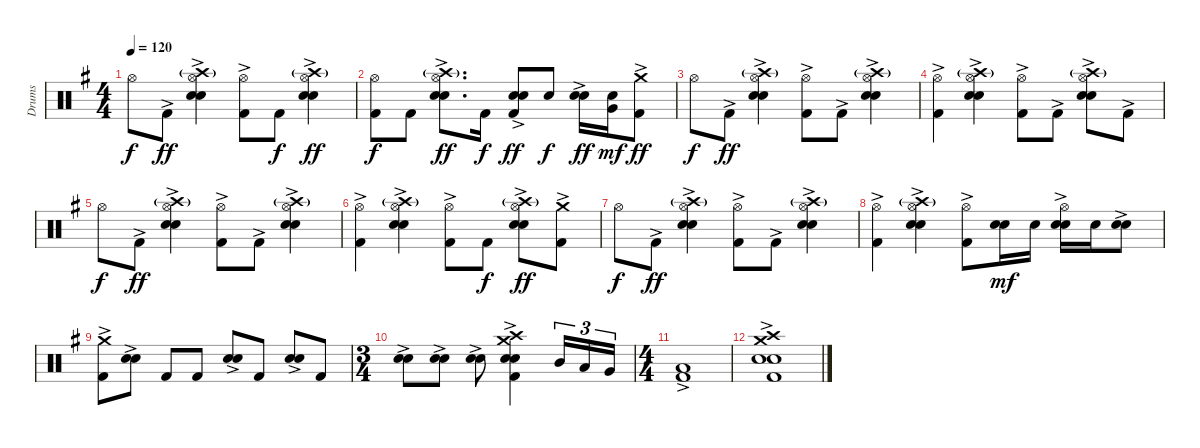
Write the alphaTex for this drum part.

\track ("Drums" "Drums") {instrument percussion}
\staff {score}
\articulation defaults
\ts (4 4)
\tempo 120
\clef neutral
\ks g "Hi-Hat (open)".8{dy f} "Kick (hit) 2"{ac}.8{dy ff}
("Hi-Hat (open)" "Crash high (hit)"{g} "Electric Snare (hit)"{ac} "Snare (hit) 2").4 ("Hi-Hat (open)" "Kick (hit) 2"{ac}).8 "Kick (hit) 2".8{dy f} ("Hi-Hat (open)" "Crash high (hit)"{g} "Electric Snare (hit)"{ac} "Snare (hit) 2").4{dy ff} |
("Hi-Hat (open)" "Kick (hit) 2").8{dy f} "Kick (hit) 2".8 ("Hi-Hat (open)" "Crash high (hit)"{g} "Electric Snare (hit)"{ac} "Snare (hit) 2").8{d dy ff} "Kick (hit) 2".16{dy f} ("Electric Snare (hit)"{ac} "Snare (hit) 2" "Kick (hit) 2").8{dy ff} "Snare (hit) 2".8{dy f} ("Electric Snare (hit)"{ac} "Snare (hit) 2").16{dy ff} ("Very Low Tom (hit)" "Snare (hit) 2").16{dy mf} ("Crash medium (hit)" "Kick (hit) 2"{ac}).8{dy ff} |
"Hi-Hat (open)".8{dy f} "Kick (hit) 2"{ac}.8{dy ff} ("Hi-Hat (open)" "Crash high (hit)"{g} "Electric Snare (hit)"{ac} "Snare (hit) 2").4 ("Hi-Hat (open)" "Kick (hit) 2"{ac}).8 "Kick (hit) 2"{ac}.8 ("Hi-Hat (open)" "Crash high (hit)"{g} "Electric Snare (hit)"{ac} "Snare (hit) 2").4 |
("Hi-Hat (open)" "Kick (hit) 2"{ac}).4 ("Hi-Hat (open)" "Crash high (hit)"{g} "Electric Snare (hit)"{ac} "Snare (hit) 2").4 ("Hi-Hat (open)" "Kick (hit) 2"{ac}).8 "Kick (hit) 2"{ac}.8 ("Hi-Hat (open)" "Crash high (hit)"{g} "Electric Snare (hit)"{ac} "Snare (hit) 2").8 "Kick (hit) 2"{ac}.8 |
"Hi-Hat (open)".8{dy f} "Kick (hit) 2"{ac}.8{dy ff} ("Hi-Hat (open)" "Crash high (hit)"{g} "Electric Snare (hit)"{ac} "Snare (hit) 2").4 ("Hi-Hat (open)" "Kick (hit) 2"{ac}).8 "Kick (hit) 2"{ac}.8 ("Hi-Hat (open)" "Crash high (hit)"{g} "Electric Snare (hit)"{ac} "Snare (hit) 2").4 |
("Hi-Hat (open)" "Kick (hit) 2"{ac}).4 ("Hi-Hat (open)" "Crash high (hit)"{g} "Electric Snare (hit)"{ac} "Snare (hit) 2").4 ("Hi-Hat (open)" "Kick (hit) 2"{ac}).8 "Kick (hit) 2".8{dy f} ("Hi-Hat (open)" "Crash high (hit)"{g} "Electric Snare (hit)"{ac} "Snare (hit) 2").8{dy ff} ("Crash medium (hit)" "Kick (hit) 2"{ac}).8 |
"Hi-Hat (open)".8{dy f} "Kick (hit) 2"{ac}.8{dy ff} ("Hi-Hat (open)" "Crash high (hit)"{g} "Electric Snare (hit)"{ac} "Snare (hit) 2").4 ("Hi-Hat (open)" "Kick (hit) 2"{ac}).8 "Kick (hit) 2"{ac}.8 ("Hi-Hat (open)" "Crash high (hit)"{g} "Electric Snare (hit)"{ac} "Snare (hit) 2").4 |
("Hi-Hat (open)" "Kick (hit) 2"{ac}).4 ("Hi-Hat (open)" "Crash high (hit)"{g} "Electric Snare (hit)"{ac} "Snare (hit) 2").4 ("Hi-Hat (open)" "Kick (hit) 2"{ac}).8 ("Electric Snare (hit)" "Snare (hit) 2").16{dy mf} "Snare (hit) 2".16 ("Hi-Hat (open)" "Electric Snare (hit)"{ac} "Snare (hit) 2").16 "Snare (hit) 2".16 ("Electric Snare (hit)"{ac} "Snare (hit) 2").8 |
("Crash medium (hit)" "Kick (hit) 2"{ac}).8 ("Electric Snare (hit)"{ac} "Snare (hit) 2").8 "Kick (hit) 2".8 "Kick (hit) 2".8 ("Electric Snare (hit)"{ac} "Snare (hit) 2").8 "Kick (hit) 2".8 ("Electric Snare (hit)"{ac} "Snare (hit) 2").8 "Kick (hit) 2".8 |
\ts (3 4)
("Electric Snare (hit)"{ac} "Snare (hit) 2").8 ("Electric Snare (hit)"{ac} "Snare (hit) 2").8 ("Electric Snare (hit)"{ac} "Snare (hit) 2").8 ("Crash high (hit)" "Crash medium (hit)" "Electric Snare (hit)" "Snare (hit) 2" "Kick (hit) 2"{ac}).4 "Mid Tom (hit)".16{tu (3 2)} "Low Tom (hit)".16{tu (3 2)} "Very Low Tom (hit)".16{tu (3 2)} |
\ts (4 4)
("Low Floor Tom (hit)" "Kick (hit) 2"{ac}).1 |
("Crash high (hit)" "Crash medium (hit)" "Electric Snare (hit)"{ac} "Snare (hit) 2" "Kick (hit) 2").1
